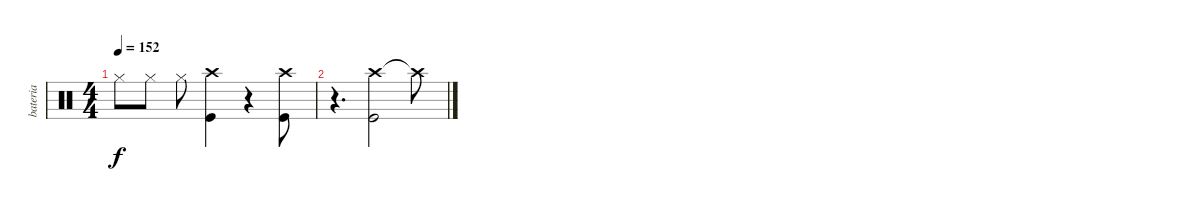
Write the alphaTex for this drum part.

\track ("bateria" "bateria") {instrument percussion}
\staff {score}
\articulation defaults
\ts (4 4)
\tempo 152
\clef neutral
\ks c "Hi-Hat (closed)".8{dy f} "Hi-Hat (closed)".8 "Hi-Hat (closed)".8
("Crash high (hit)" "Kick (hit)").4 r.4 ("Crash high (hit)" "Kick (hit)").8 |
r.4{d} ("Crash high (hit)" "Kick (hit)").2 "Crash high (hit)"{t}.8
